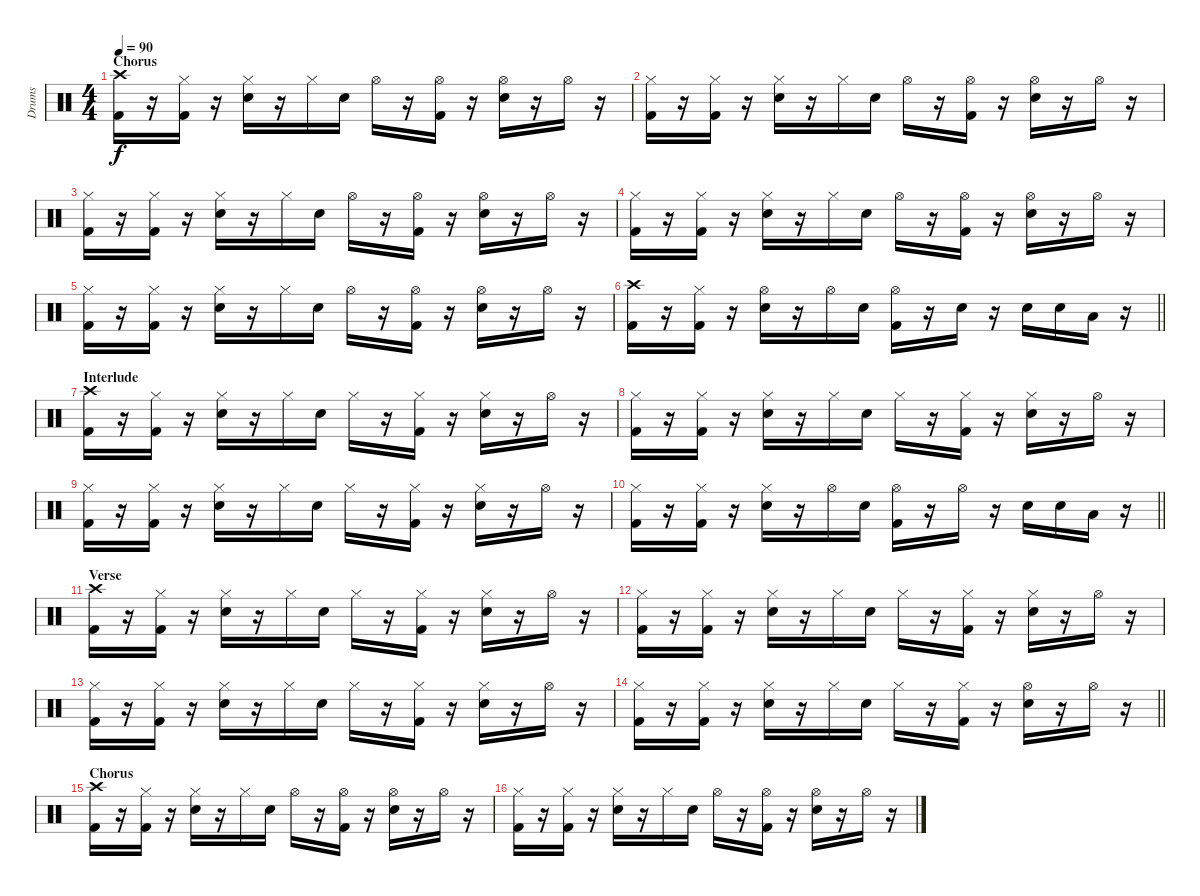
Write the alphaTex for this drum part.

\track ("Drums" "Drums") {instrument percussion}
\staff {score}
\articulation defaults
\ts (4 4)
\section ("" "Chorus")
\tempo 90
\clef neutral
\ks c
("Crash high (hit)" "Kick (hit) 2").16{dy f} r.16 ("Hi-Hat (closed)" "Kick (hit) 2").16 r.16 ("Hi-Hat (closed)" "Snare (hit) 2").16 r.16 "Hi-Hat (closed)".16 "Snare (hit) 2".16 "Hi-Hat (open)".16 r.16 ("Hi-Hat (open)" "Kick (hit) 2").16 r.16 ("Hi-Hat (open)" "Snare (hit) 2").16 r.16 "Hi-Hat (open)".16 r.16 |
("Hi-Hat (closed)" "Kick (hit) 2").16 r.16 ("Hi-Hat (closed)" "Kick (hit) 2").16 r.16 ("Hi-Hat (closed)" "Snare (hit) 2").16 r.16 "Hi-Hat (closed)".16 "Snare (hit) 2".16 "Hi-Hat (open)".16 r.16 ("Hi-Hat (open)" "Kick (hit) 2").16 r.16 ("Hi-Hat (open)" "Snare (hit) 2").16 r.16 "Hi-Hat (open)".16 r.16 |
("Hi-Hat (closed)" "Kick (hit) 2").16 r.16 ("Hi-Hat (closed)" "Kick (hit) 2").16 r.16 ("Hi-Hat (closed)" "Snare (hit) 2").16 r.16 "Hi-Hat (closed)".16 "Snare (hit) 2".16 "Hi-Hat (open)".16 r.16 ("Hi-Hat (open)" "Kick (hit) 2").16 r.16 ("Hi-Hat (open)" "Snare (hit) 2").16 r.16 "Hi-Hat (open)".16 r.16 |
("Hi-Hat (closed)" "Kick (hit) 2").16 r.16 ("Hi-Hat (closed)" "Kick (hit) 2").16 r.16 ("Hi-Hat (closed)" "Snare (hit) 2").16 r.16 "Hi-Hat (closed)".16 "Snare (hit) 2".16 "Hi-Hat (open)".16 r.16 ("Hi-Hat (open)" "Kick (hit) 2").16 r.16 ("Hi-Hat (open)" "Snare (hit) 2").16 r.16 "Hi-Hat (open)".16 r.16 |
("Hi-Hat (closed)" "Kick (hit) 2").16 r.16 ("Hi-Hat (closed)" "Kick (hit) 2").16 r.16 ("Hi-Hat (closed)" "Snare (hit) 2").16 r.16 "Hi-Hat (closed)".16 "Snare (hit) 2".16 "Hi-Hat (open)".16 r.16 ("Hi-Hat (open)" "Kick (hit) 2").16 r.16 ("Hi-Hat (open)" "Snare (hit) 2").16 r.16 "Hi-Hat (open)".16 r.16 |
\barLineRight lightlight
("Crash high (hit)" "Kick (hit) 2").16 r.16 ("Hi-Hat (closed)" "Kick (hit) 2").16 r.16 ("Hi-Hat (open)" "Snare (hit) 2").16 r.16 "Hi-Hat (open)".16 "Snare (hit) 2".16 ("Hi-Hat (open)" "Kick (hit) 2").16 r.16 "Snare (hit) 2".16 r.16 "Snare (hit) 2".16 "Snare (hit) 2".16 "Low Tom (hit)".16 r.16 |
\section ("" "Interlude")
("Crash high (hit)" "Kick (hit) 2").16 r.16 ("Hi-Hat (closed)" "Kick (hit) 2").16 r.16 ("Hi-Hat (closed)" "Snare (hit) 2").16 r.16 "Hi-Hat (closed)".16 "Snare (hit) 2".16 "Hi-Hat (closed)".16 r.16 ("Hi-Hat (closed)" "Kick (hit) 2").16 r.16 ("Hi-Hat (closed)" "Snare (hit) 2").16 r.16 "Hi-Hat (open)".16 r.16 |
("Hi-Hat (closed)" "Kick (hit) 2").16 r.16 ("Hi-Hat (closed)" "Kick (hit) 2").16 r.16 ("Hi-Hat (closed)" "Snare (hit) 2").16 r.16 "Hi-Hat (closed)".16 "Snare (hit) 2".16 "Hi-Hat (closed)".16 r.16 ("Hi-Hat (closed)" "Kick (hit) 2").16 r.16 ("Hi-Hat (closed)" "Snare (hit) 2").16 r.16 "Hi-Hat (open)".16 r.16 |
("Hi-Hat (closed)" "Kick (hit) 2").16 r.16 ("Hi-Hat (closed)" "Kick (hit) 2").16 r.16 ("Hi-Hat (closed)" "Snare (hit) 2").16 r.16 "Hi-Hat (closed)".16 "Snare (hit) 2".16 "Hi-Hat (closed)".16 r.16 ("Hi-Hat (closed)" "Kick (hit) 2").16 r.16 ("Hi-Hat (closed)" "Snare (hit) 2").16 r.16 "Hi-Hat (open)".16 r.16 |
\barLineRight lightlight
("Hi-Hat (closed)" "Kick (hit) 2").16 r.16 ("Hi-Hat (closed)" "Kick (hit) 2").16 r.16 ("Hi-Hat (closed)" "Snare (hit) 2").16 r.16 "Hi-Hat (open)".16 "Snare (hit) 2".16 ("Hi-Hat (open)" "Kick (hit) 2").16 r.16 "Hi-Hat (open)".16 r.16 "Snare (hit) 2".16 "Snare (hit) 2".16 "Low Tom (hit)".16 r.16 |
\section ("" "Verse")
("Crash high (hit)" "Kick (hit) 2").16 r.16 ("Hi-Hat (closed)" "Kick (hit) 2").16 r.16 ("Hi-Hat (closed)" "Snare (hit) 2").16 r.16 "Hi-Hat (closed)".16 "Snare (hit) 2".16 "Hi-Hat (closed)".16 r.16 ("Hi-Hat (closed)" "Kick (hit) 2").16 r.16 ("Hi-Hat (closed)" "Snare (hit) 2").16 r.16 "Hi-Hat (open)".16 r.16 |
("Hi-Hat (closed)" "Kick (hit) 2").16 r.16 ("Hi-Hat (closed)" "Kick (hit) 2").16 r.16 ("Hi-Hat (closed)" "Snare (hit) 2").16 r.16 "Hi-Hat (closed)".16 "Snare (hit) 2".16 "Hi-Hat (closed)".16 r.16 ("Hi-Hat (closed)" "Kick (hit) 2").16 r.16 ("Hi-Hat (closed)" "Snare (hit) 2").16 r.16 "Hi-Hat (open)".16 r.16 |
("Hi-Hat (closed)" "Kick (hit) 2").16 r.16 ("Hi-Hat (closed)" "Kick (hit) 2").16 r.16 ("Hi-Hat (closed)" "Snare (hit) 2").16 r.16 "Hi-Hat (closed)".16 "Snare (hit) 2".16 "Hi-Hat (closed)".16 r.16 ("Hi-Hat (closed)" "Kick (hit) 2").16 r.16 ("Hi-Hat (closed)" "Snare (hit) 2").16 r.16 "Hi-Hat (open)".16 r.16 |
\barLineRight lightlight
("Hi-Hat (closed)" "Kick (hit) 2").16 r.16 ("Hi-Hat (closed)" "Kick (hit) 2").16 r.16 ("Hi-Hat (closed)" "Snare (hit) 2").16 r.16 "Hi-Hat (closed)".16 "Snare (hit) 2".16 "Hi-Hat (closed)".16 r.16 ("Hi-Hat (closed)" "Kick (hit) 2").16 r.16 ("Hi-Hat (open)" "Snare (hit) 2").16 r.16 "Hi-Hat (open)".16 r.16 |
\section ("" "Chorus")
("Crash high (hit)" "Kick (hit) 2").16 r.16 ("Hi-Hat (closed)" "Kick (hit) 2").16 r.16 ("Hi-Hat (closed)" "Snare (hit) 2").16 r.16 "Hi-Hat (closed)".16 "Snare (hit) 2".16 "Hi-Hat (open)".16 r.16 ("Hi-Hat (open)" "Kick (hit) 2").16 r.16 ("Hi-Hat (open)" "Snare (hit) 2").16 r.16 "Hi-Hat (open)".16 r.16 |
("Hi-Hat (closed)" "Kick (hit) 2").16 r.16 ("Hi-Hat (closed)" "Kick (hit) 2").16 r.16 ("Hi-Hat (closed)" "Snare (hit) 2").16 r.16 "Hi-Hat (closed)".16 "Snare (hit) 2".16 "Hi-Hat (open)".16 r.16 ("Hi-Hat (open)" "Kick (hit) 2").16 r.16 ("Hi-Hat (open)" "Snare (hit) 2").16 r.16 "Hi-Hat (open)".16 r.16
